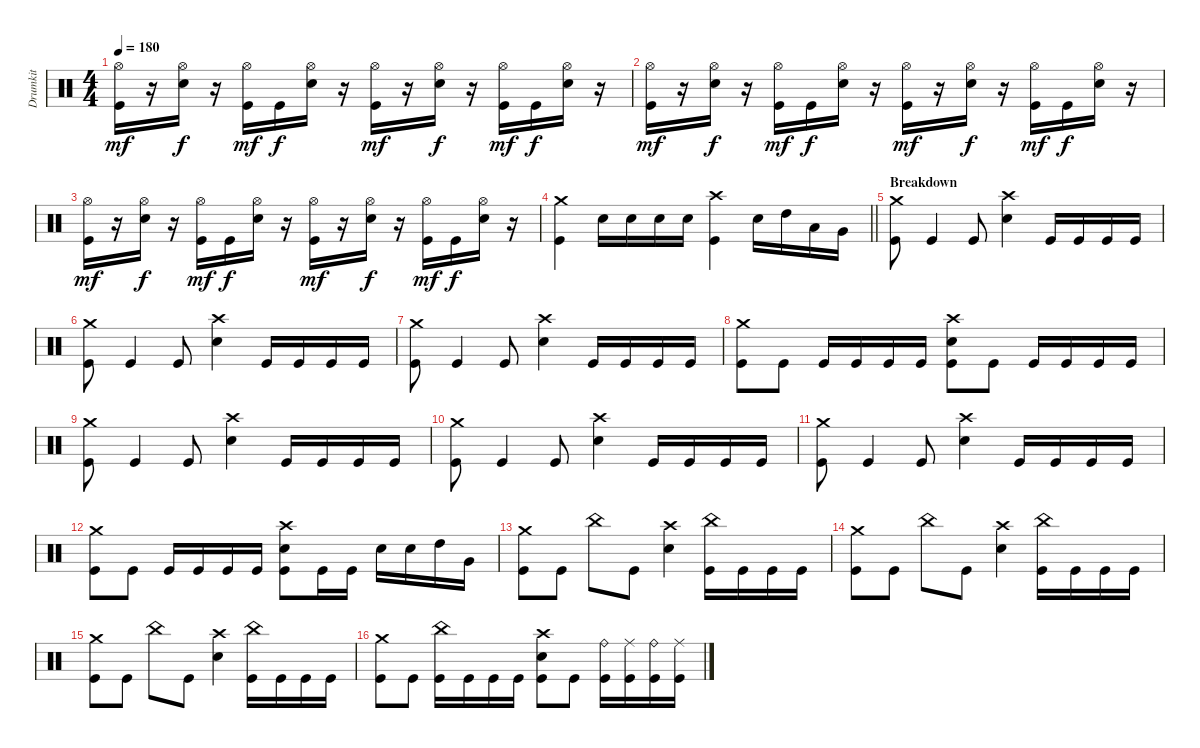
\track ("Drumkit" "Drumkit") {instrument percussion}
\staff {score}
\articulation defaults
\ts (4 4)
\tempo 180
\clef neutral
\ks c
("Hi-Hat (open)" "Kick (hit)").16{dy mf} r.16 ("Hi-Hat (open)" "Snare (hit) 2").16{dy f} r.16 ("Hi-Hat (open)" "Kick (hit)").16{dy mf} "Kick (hit)".16{dy f} ("Hi-Hat (open)" "Snare (hit) 2").16 r.16 ("Hi-Hat (open)" "Kick (hit)").16{dy mf} r.16 ("Hi-Hat (open)" "Snare (hit) 2").16{dy f} r.16 ("Hi-Hat (open)" "Kick (hit)").16{dy mf} "Kick (hit)".16{dy f} ("Hi-Hat (open)" "Snare (hit) 2").16 r.16 |
("Hi-Hat (open)" "Kick (hit)").16{dy mf} r.16 ("Hi-Hat (open)" "Snare (hit) 2").16{dy f} r.16 ("Hi-Hat (open)" "Kick (hit)").16{dy mf} "Kick (hit)".16{dy f} ("Hi-Hat (open)" "Snare (hit) 2").16 r.16 ("Hi-Hat (open)" "Kick (hit)").16{dy mf} r.16 ("Hi-Hat (open)" "Snare (hit) 2").16{dy f} r.16 ("Hi-Hat (open)" "Kick (hit)").16{dy mf} "Kick (hit)".16{dy f} ("Hi-Hat (open)" "Snare (hit) 2").16 r.16 |
("Hi-Hat (open)" "Kick (hit)").16{dy mf} r.16 ("Hi-Hat (open)" "Snare (hit) 2").16{dy f} r.16 ("Hi-Hat (open)" "Kick (hit)").16{dy mf} "Kick (hit)".16{dy f} ("Hi-Hat (open)" "Snare (hit) 2").16 r.16 ("Hi-Hat (open)" "Kick (hit)").16{dy mf} r.16 ("Hi-Hat (open)" "Snare (hit) 2").16{dy f} r.16 ("Hi-Hat (open)" "Kick (hit)").16{dy mf} "Kick (hit)".16{dy f} ("Hi-Hat (open)" "Snare (hit) 2").16 r.16 |
\barLineRight lightlight
("Crash medium (hit)" "Kick (hit)").4 "Snare (hit) 2".16 "Snare (hit) 2".16 "Snare (hit) 2".16 "Snare (hit) 2".16 ("Crash high (hit)" "Kick (hit)").4 "Snare (hit) 2".16 "High Tom (hit)".16 "Low Tom (hit)".16 "Very Low Tom (hit)".16 |
\section ("" "Breakdown")
("Crash medium (hit)" "Kick (hit)").8 "Kick (hit)".4 "Kick (hit)".8 ("Crash high (hit)" "Snare (hit) 2").4 "Kick (hit)".16 "Kick (hit)".16 "Kick (hit)".16 "Kick (hit)".16 |
("Crash medium (hit)" "Kick (hit)").8 "Kick (hit)".4 "Kick (hit)".8 ("Crash high (hit)" "Snare (hit) 2").4 "Kick (hit)".16 "Kick (hit)".16 "Kick (hit)".16 "Kick (hit)".16 |
("Crash medium (hit)" "Kick (hit)").8 "Kick (hit)".4 "Kick (hit)".8 ("Crash high (hit)" "Snare (hit) 2").4 "Kick (hit)".16 "Kick (hit)".16 "Kick (hit)".16 "Kick (hit)".16 |
("Crash medium (hit)" "Kick (hit)").8 "Kick (hit)".8 "Kick (hit)".16 "Kick (hit)".16 "Kick (hit)".16 "Kick (hit)".16 ("Crash high (hit)" "Snare (hit) 2" "Kick (hit)").8 "Kick (hit)".8 "Kick (hit)".16 "Kick (hit)".16 "Kick (hit)".16 "Kick (hit)".16 |
("Crash medium (hit)" "Kick (hit)").8 "Kick (hit)".4 "Kick (hit)".8 ("Crash high (hit)" "Snare (hit) 2").4 "Kick (hit)".16 "Kick (hit)".16 "Kick (hit)".16 "Kick (hit)".16 |
("Crash medium (hit)" "Kick (hit)").8 "Kick (hit)".4 "Kick (hit)".8 ("Crash high (hit)" "Snare (hit) 2").4 "Kick (hit)".16 "Kick (hit)".16 "Kick (hit)".16 "Kick (hit)".16 |
("Crash medium (hit)" "Kick (hit)").8 "Kick (hit)".4 "Kick (hit)".8 ("Crash high (hit)" "Snare (hit) 2").4 "Kick (hit)".16 "Kick (hit)".16 "Kick (hit)".16 "Kick (hit)".16 |
("Crash medium (hit)" "Kick (hit)").8 "Kick (hit)".8 "Kick (hit)".16 "Kick (hit)".16 "Kick (hit)".16 "Kick (hit)".16 ("Crash high (hit)" "Snare (hit) 2" "Kick (hit)").8 "Kick (hit)".16 "Kick (hit)".16 "Snare (hit) 2".16 "Snare (hit) 2".16 "High Tom (hit)".16 "Very Low Tom (hit)".16 |
("Crash medium (hit)" "Kick (hit)").8 "Kick (hit)".8 "China (hit)".8 "Kick (hit)".8 ("Crash high (hit)" "Snare (hit) 2").4 ("China (hit)" "Kick (hit)").16 "Kick (hit)".16 "Kick (hit)".16 "Kick (hit)".16 |
("Crash medium (hit)" "Kick (hit)").8 "Kick (hit)".8 "China (hit)".8 "Kick (hit)".8 ("Crash high (hit)" "Snare (hit) 2").4 ("China (hit)" "Kick (hit)").16 "Kick (hit)".16 "Kick (hit)".16 "Kick (hit)".16 |
("Crash medium (hit)" "Kick (hit)").8 "Kick (hit)".8 "China (hit)".8 "Kick (hit)".8 ("Crash high (hit)" "Snare (hit) 2").4 ("China (hit)" "Kick (hit)").16 "Kick (hit)".16 "Kick (hit)".16 "Kick (hit)".16 |
("Crash medium (hit)" "Kick (hit)").8 "Kick (hit)".8 ("China (hit)" "Kick (hit)").16 "Kick (hit)".16 "Kick (hit)".16 "Kick (hit)".16 ("Crash high (hit)" "Snare (hit) 2" "Kick (hit)").8 "Kick (hit)".8 ("Ride (bell)" "Kick (hit)").16 ("Ride (middle)" "Kick (hit)").16 ("Ride (bell)" "Kick (hit)").16 ("Ride (middle)" "Kick (hit)").16
